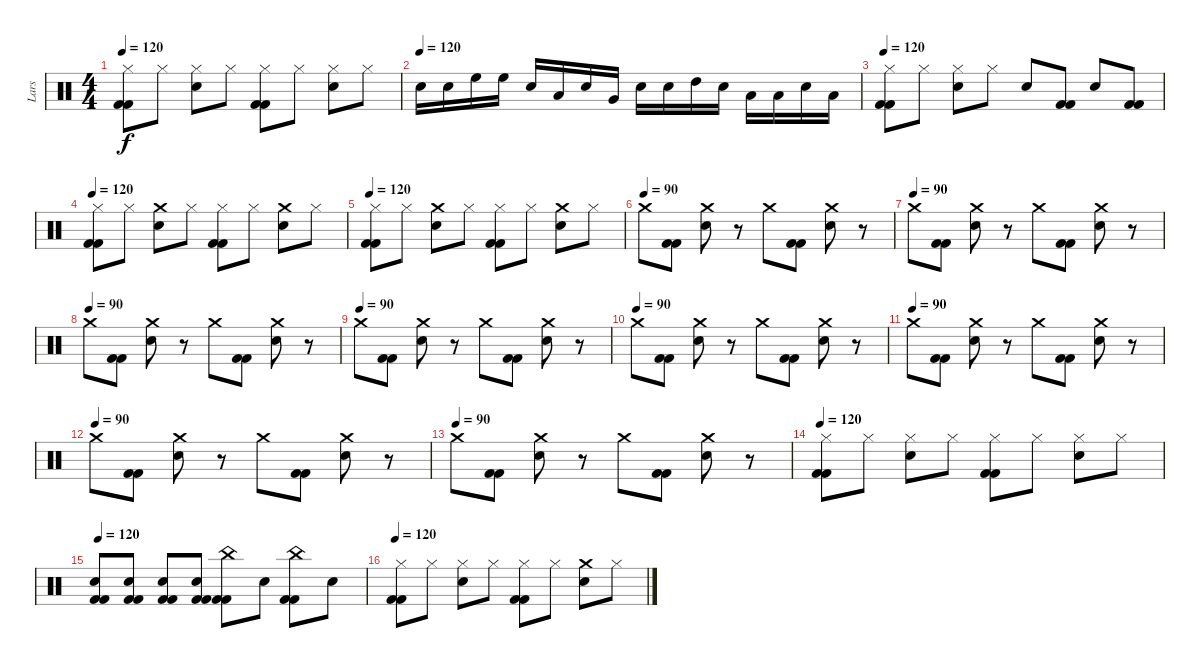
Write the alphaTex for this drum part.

\track ("Lars" "Lars") {instrument percussion}
\staff {score}
\articulation defaults
\ts (4 4)
\tempo 120
\clef neutral
\ks c
("Hi-Hat (closed)" "Kick (hit) 2" "Kick (hit) 2").8{dy f} "Hi-Hat (closed)".8 ("Electric Snare (hit)" "Hi-Hat (closed)").8 "Hi-Hat (closed)".8 ("Hi-Hat (closed)" "Kick (hit) 2" "Kick (hit) 2").8 "Hi-Hat (closed)".8 ("Electric Snare (hit)" "Hi-Hat (closed)").8 "Hi-Hat (closed)".8 |
\tempo (120)
"Electric Snare (hit)".16 "Electric Snare (hit)".16 "High Floor Tom (hit)".16 "High Floor Tom (hit)".16 "Electric Snare (hit)".16 "Low Tom (hit)".16 "Electric Snare (hit)".16 "Very Low Tom (hit)".16 "Electric Snare (hit)".16 "Electric Snare (hit)".16 "High Tom (hit)".16 "Electric Snare (hit)".16 "Low Tom (hit)".16 "Low Tom (hit)".16 "Electric Snare (hit)".16 "Low Floor Tom (hit)".16 |
\tempo 120
("Hi-Hat (closed)" "Kick (hit) 2" "Kick (hit) 2").8 "Hi-Hat (closed)".8 ("Electric Snare (hit)" "Hi-Hat (closed)").8 "Hi-Hat (closed)".8 "Electric Snare (hit)".8 ("Kick (hit) 2" "Kick (hit) 2").8 "Electric Snare (hit)".8 ("Kick (hit) 2" "Kick (hit) 2").8 |
\tempo 120
("Hi-Hat (closed)" "Kick (hit) 2" "Kick (hit) 2").8 "Hi-Hat (closed)".8 ("Electric Snare (hit)" "Crash medium (hit)").8 "Hi-Hat (closed)".8 ("Hi-Hat (closed)" "Kick (hit) 2" "Kick (hit) 2").8 "Hi-Hat (closed)".8 ("Electric Snare (hit)" "Crash medium (hit)").8 "Hi-Hat (closed)".8 |
\tempo 120
("Hi-Hat (closed)" "Kick (hit) 2" "Kick (hit) 2").8 "Hi-Hat (closed)".8 ("Electric Snare (hit)" "Crash medium (hit)").8 "Hi-Hat (closed)".8 ("Hi-Hat (closed)" "Kick (hit) 2" "Kick (hit) 2").8 "Hi-Hat (closed)".8 ("Electric Snare (hit)" "Crash medium (hit)").8 "Hi-Hat (closed)".8 |
\tempo (90)
"Crash medium (hit)".8 ("Kick (hit) 2" "Kick (hit) 2").8 ("Electric Snare (hit)" "Crash medium (hit)").8 r.8 "Crash medium (hit)".8 ("Kick (hit) 2" "Kick (hit) 2").8 ("Electric Snare (hit)" "Crash medium (hit)").8 r.8 |
\tempo (90)
"Crash medium (hit)".8 ("Kick (hit) 2" "Kick (hit) 2").8 ("Electric Snare (hit)" "Crash medium (hit)").8 r.8 "Crash medium (hit)".8 ("Kick (hit) 2" "Kick (hit) 2").8 ("Electric Snare (hit)" "Crash medium (hit)").8 r.8 |
\tempo (90)
"Crash medium (hit)".8 ("Kick (hit) 2" "Kick (hit) 2").8 ("Electric Snare (hit)" "Crash medium (hit)").8 r.8 "Crash medium (hit)".8 ("Kick (hit) 2" "Kick (hit) 2").8 ("Electric Snare (hit)" "Crash medium (hit)").8 r.8 |
\tempo (90)
"Crash medium (hit)".8 ("Kick (hit) 2" "Kick (hit) 2").8 ("Electric Snare (hit)" "Crash medium (hit)").8 r.8 "Crash medium (hit)".8 ("Kick (hit) 2" "Kick (hit) 2").8 ("Electric Snare (hit)" "Crash medium (hit)").8 r.8 |
\tempo (90)
"Crash medium (hit)".8 ("Kick (hit) 2" "Kick (hit) 2").8 ("Electric Snare (hit)" "Crash medium (hit)").8 r.8 "Crash medium (hit)".8 ("Kick (hit) 2" "Kick (hit) 2").8 ("Electric Snare (hit)" "Crash medium (hit)").8 r.8 |
\tempo (90)
"Crash medium (hit)".8 ("Kick (hit) 2" "Kick (hit) 2").8 ("Electric Snare (hit)" "Crash medium (hit)").8 r.8 "Crash medium (hit)".8 ("Kick (hit) 2" "Kick (hit) 2").8 ("Electric Snare (hit)" "Crash medium (hit)").8 r.8 |
\tempo (90)
"Crash medium (hit)".8 ("Kick (hit) 2" "Kick (hit) 2").8 ("Electric Snare (hit)" "Crash medium (hit)").8 r.8 "Crash medium (hit)".8 ("Kick (hit) 2" "Kick (hit) 2").8 ("Electric Snare (hit)" "Crash medium (hit)").8 r.8 |
\tempo (90)
"Crash medium (hit)".8 ("Kick (hit) 2" "Kick (hit) 2").8 ("Electric Snare (hit)" "Crash medium (hit)").8 r.8 "Crash medium (hit)".8 ("Kick (hit) 2" "Kick (hit) 2").8 ("Electric Snare (hit)" "Crash medium (hit)").8 r.8 |
\tempo 120
("Hi-Hat (closed)" "Kick (hit) 2" "Kick (hit) 2").8 "Hi-Hat (closed)".8 ("Electric Snare (hit)" "Hi-Hat (closed)").8 "Hi-Hat (closed)".8 ("Hi-Hat (closed)" "Kick (hit) 2" "Kick (hit) 2").8 "Hi-Hat (closed)".8 ("Electric Snare (hit)" "Hi-Hat (closed)").8 "Hi-Hat (closed)".8 |
\tempo 120
("Electric Snare (hit)" "Kick (hit) 2" "Kick (hit) 2").8 ("Kick (hit) 2" "Kick (hit) 2" "Electric Snare (hit)").8 ("Electric Snare (hit)" "Kick (hit) 2" "Kick (hit) 2").8 ("Kick (hit) 2" "Kick (hit) 2" "Electric Snare (hit)").8 ("Kick (hit) 2" "China (hit)" "Kick (hit) 2").8 "Electric Snare (hit)".8 ("Kick (hit) 2" "China (hit)" "Kick (hit) 2").8 "Electric Snare (hit)".8 |
\tempo 120
("Hi-Hat (closed)" "Kick (hit) 2" "Kick (hit) 2").8 "Hi-Hat (closed)".8 ("Electric Snare (hit)" "Hi-Hat (closed)").8 "Hi-Hat (closed)".8 ("Hi-Hat (closed)" "Kick (hit) 2" "Kick (hit) 2").8 "Hi-Hat (closed)".8 ("Electric Snare (hit)" "Crash medium (hit)").8 "Hi-Hat (closed)".8
